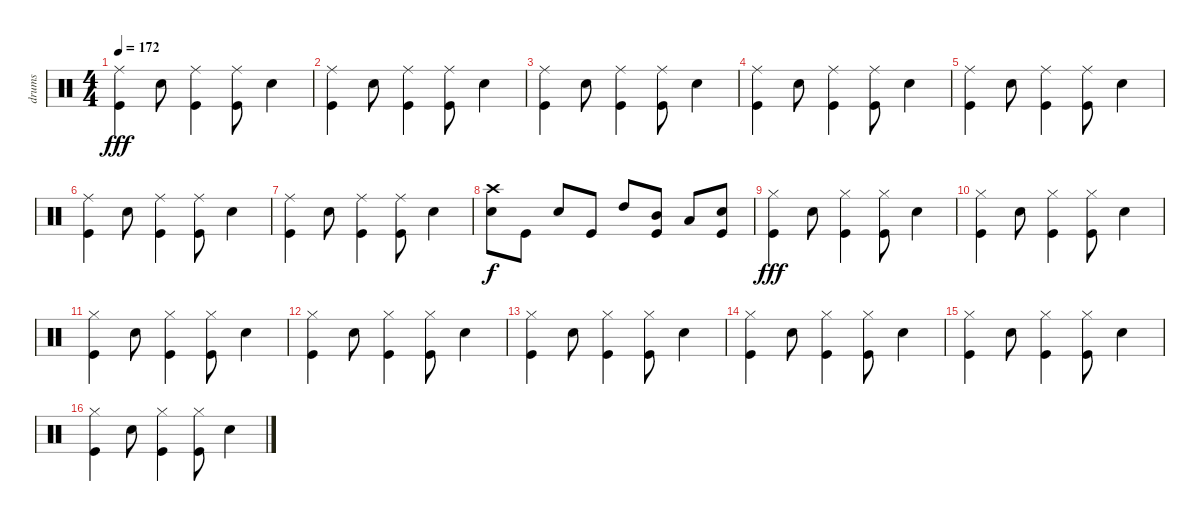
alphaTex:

\track ("drums" "drums") {instrument percussion}
\staff {score}
\articulation defaults
\ts (4 4)
\tempo 172
\clef neutral
\ks c
("Ride (middle)" "Kick (hit)").4{dy fff} "Electric Snare (hit)".8 ("Ride (middle)" "Kick (hit)").4 ("Ride (middle)" "Kick (hit)").8 "Electric Snare (hit)".4 |
("Ride (middle)" "Kick (hit)").4 "Electric Snare (hit)".8 ("Ride (middle)" "Kick (hit)").4 ("Ride (middle)" "Kick (hit)").8 "Electric Snare (hit)".4 |
("Ride (middle)" "Kick (hit)").4 "Electric Snare (hit)".8 ("Ride (middle)" "Kick (hit)").4 ("Ride (middle)" "Kick (hit)").8 "Electric Snare (hit)".4 |
("Ride (middle)" "Kick (hit)").4 "Electric Snare (hit)".8 ("Ride (middle)" "Kick (hit)").4 ("Ride (middle)" "Kick (hit)").8 "Electric Snare (hit)".4 |
("Ride (middle)" "Kick (hit)").4 "Electric Snare (hit)".8 ("Ride (middle)" "Kick (hit)").4 ("Ride (middle)" "Kick (hit)").8 "Electric Snare (hit)".4 |
("Ride (middle)" "Kick (hit)").4 "Electric Snare (hit)".8 ("Ride (middle)" "Kick (hit)").4 ("Ride (middle)" "Kick (hit)").8 "Electric Snare (hit)".4 |
("Ride (middle)" "Kick (hit)").4 "Electric Snare (hit)".8 ("Ride (middle)" "Kick (hit)").4 ("Ride (middle)" "Kick (hit)").8 "Electric Snare (hit)".4 |
("Crash high (hit)" "Electric Snare (hit)").8{dy f} "Kick (hit)".8 "Electric Snare (hit)".8 "Kick (hit)".8 "High Tom (hit)".8 ("Mid Tom (hit)" "Kick (hit)").8 "Low Tom (hit)".8 ("Electric Snare (hit)" "Kick (hit)").8 |
("Hi-Hat (closed)" "Kick (hit)").4{dy fff} "Electric Snare (hit)".8 ("Hi-Hat (closed)" "Kick (hit)").4 ("Hi-Hat (closed)" "Kick (hit)").8 "Electric Snare (hit)".4 |
("Hi-Hat (closed)" "Kick (hit)").4 "Electric Snare (hit)".8 ("Hi-Hat (closed)" "Kick (hit)").4 ("Hi-Hat (closed)" "Kick (hit)").8 "Electric Snare (hit)".4 |
("Hi-Hat (closed)" "Kick (hit)").4 "Electric Snare (hit)".8 ("Hi-Hat (closed)" "Kick (hit)").4 ("Hi-Hat (closed)" "Kick (hit)").8 "Electric Snare (hit)".4 |
("Hi-Hat (closed)" "Kick (hit)").4 "Electric Snare (hit)".8 ("Hi-Hat (closed)" "Kick (hit)").4 ("Hi-Hat (closed)" "Kick (hit)").8 "Electric Snare (hit)".4 |
("Hi-Hat (closed)" "Kick (hit)").4 "Electric Snare (hit)".8 ("Hi-Hat (closed)" "Kick (hit)").4 ("Hi-Hat (closed)" "Kick (hit)").8 "Electric Snare (hit)".4 |
("Hi-Hat (closed)" "Kick (hit)").4 "Electric Snare (hit)".8 ("Hi-Hat (closed)" "Kick (hit)").4 ("Hi-Hat (closed)" "Kick (hit)").8 "Electric Snare (hit)".4 |
("Hi-Hat (closed)" "Kick (hit)").4 "Electric Snare (hit)".8 ("Hi-Hat (closed)" "Kick (hit)").4 ("Hi-Hat (closed)" "Kick (hit)").8 "Electric Snare (hit)".4 |
("Hi-Hat (closed)" "Kick (hit)").4 "Electric Snare (hit)".8 ("Hi-Hat (closed)" "Kick (hit)").4 ("Hi-Hat (closed)" "Kick (hit)").8 "Electric Snare (hit)".4
